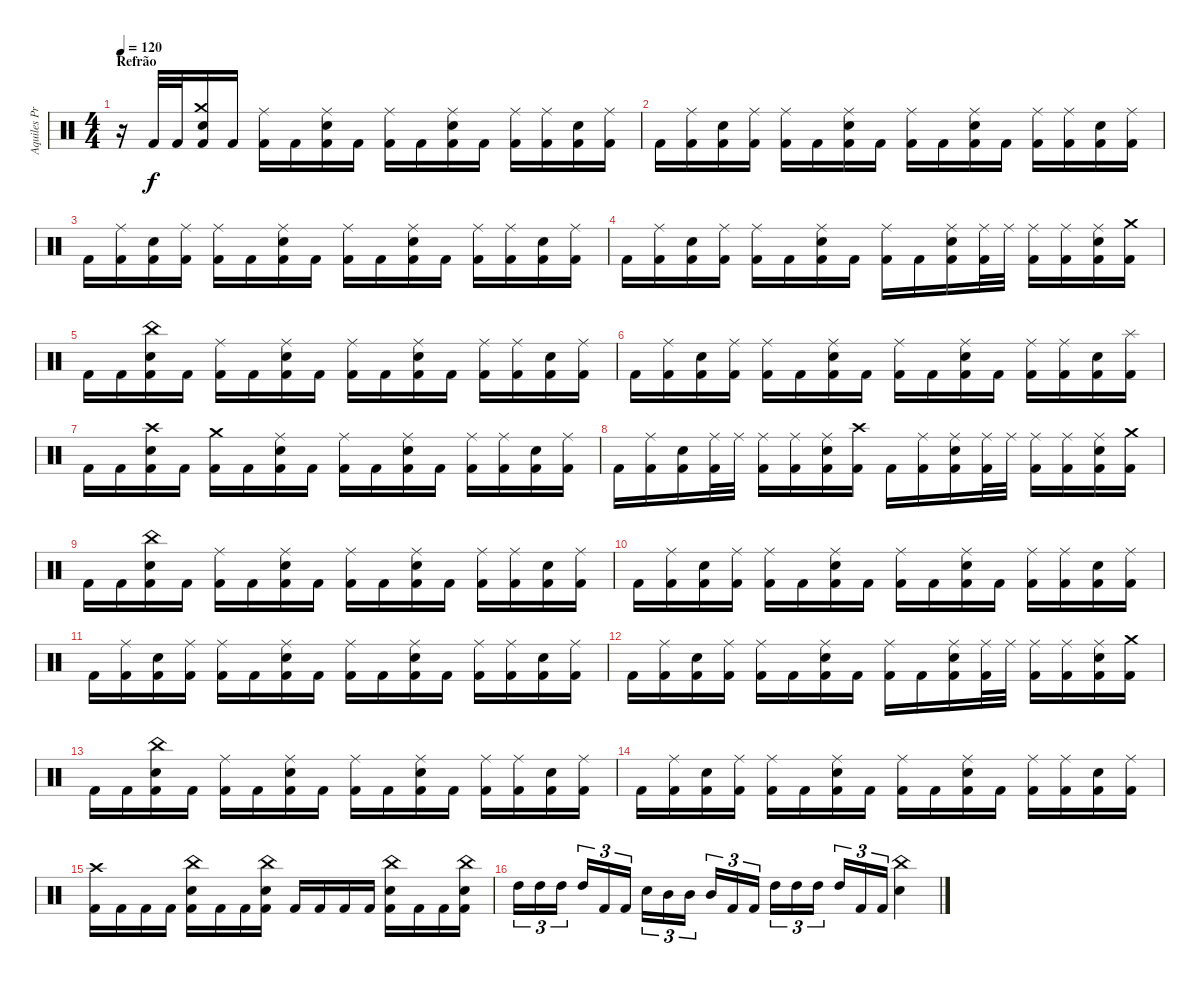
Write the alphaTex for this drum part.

\track ("Aquiles Priester" "Aquiles Pr") {instrument percussion}
\staff {score}
\articulation defaults
\ts (4 4)
\section ("" "Refrão")
\tempo 120
\clef neutral
\ks c
r.16{dy f} "Kick (hit) 2".32 "Kick (hit) 2".32 ("Crash medium (hit)" "Electric Snare (hit)" "Kick (hit) 2").16 "Kick (hit) 2".16 ("Ride (middle)" "Kick (hit) 2").16 "Kick (hit) 2".16 ("Ride (middle)" "Electric Snare (hit)" "Kick (hit) 2").16 "Kick (hit) 2".16 ("Ride (middle)" "Kick (hit) 2").16 "Kick (hit) 2".16 ("Ride (middle)" "Electric Snare (hit)" "Kick (hit) 2").16 "Kick (hit) 2".16 ("Ride (middle)" "Kick (hit) 2").16 ("Ride (middle)" "Kick (hit) 2").16 ("Electric Snare (hit)" "Kick (hit) 2").16 ("Ride (middle)" "Kick (hit) 2").16 |
"Kick (hit) 2".16 ("Ride (middle)" "Kick (hit) 2").16 ("Electric Snare (hit)" "Kick (hit) 2").16 ("Ride (middle)" "Kick (hit) 2").16 ("Ride (middle)" "Kick (hit) 2").16 "Kick (hit) 2".16 ("Ride (middle)" "Electric Snare (hit)" "Kick (hit) 2").16 "Kick (hit) 2".16 ("Ride (middle)" "Kick (hit) 2").16 "Kick (hit) 2".16 ("Ride (middle)" "Electric Snare (hit)" "Kick (hit) 2").16 "Kick (hit) 2".16 ("Ride (middle)" "Kick (hit) 2").16 ("Ride (middle)" "Kick (hit) 2").16 ("Electric Snare (hit)" "Kick (hit) 2").16 ("Ride (middle)" "Kick (hit) 2").16 |
"Kick (hit) 2".16 ("Ride (middle)" "Kick (hit) 2").16 ("Electric Snare (hit)" "Kick (hit) 2").16 ("Ride (middle)" "Kick (hit) 2").16 ("Ride (middle)" "Kick (hit) 2").16 "Kick (hit) 2".16 ("Ride (middle)" "Electric Snare (hit)" "Kick (hit) 2").16 "Kick (hit) 2".16 ("Ride (middle)" "Kick (hit) 2").16 "Kick (hit) 2".16 ("Ride (middle)" "Electric Snare (hit)" "Kick (hit) 2").16 "Kick (hit) 2".16 ("Ride (middle)" "Kick (hit) 2").16 ("Ride (middle)" "Kick (hit) 2").16 ("Electric Snare (hit)" "Kick (hit) 2").16 ("Ride (middle)" "Kick (hit) 2").16 |
"Kick (hit) 2".16 ("Ride (middle)" "Kick (hit) 2").16 ("Electric Snare (hit)" "Kick (hit) 2").16 ("Ride (middle)" "Kick (hit) 2").16 ("Ride (middle)" "Kick (hit) 2").16 "Kick (hit) 2".16 ("Ride (middle)" "Electric Snare (hit)" "Kick (hit) 2").16 "Kick (hit) 2".16 ("Ride (middle)" "Kick (hit) 2").16 "Kick (hit) 2".16 ("Ride (middle)" "Electric Snare (hit)" "Kick (hit) 2").16 ("Ride (middle)" "Kick (hit) 2").32 "Ride (middle)".32 ("Ride (middle)" "Kick (hit) 2").16 ("Ride (middle)" "Kick (hit) 2").16 ("Ride (middle)" "Electric Snare (hit)" "Kick (hit) 2").16 ("Crash medium (hit)" "Kick (hit) 2").16 |
"Kick (hit) 2".16 "Kick (hit) 2".16 ("China (hit)" "Electric Snare (hit)" "Kick (hit) 2").16 "Kick (hit) 2".16 ("Ride (middle)" "Kick (hit) 2").16 "Kick (hit) 2".16 ("Ride (middle)" "Electric Snare (hit)" "Kick (hit) 2").16 "Kick (hit) 2".16 ("Ride (middle)" "Kick (hit) 2").16 "Kick (hit) 2".16 ("Ride (middle)" "Electric Snare (hit)" "Kick (hit) 2").16 "Kick (hit) 2".16 ("Ride (middle)" "Kick (hit) 2").16 ("Ride (middle)" "Kick (hit) 2").16 ("Electric Snare (hit)" "Kick (hit) 2").16 ("Ride (middle)" "Kick (hit) 2").16 |
"Kick (hit) 2".16 ("Ride (middle)" "Kick (hit) 2").16 ("Electric Snare (hit)" "Kick (hit) 2").16 ("Ride (middle)" "Kick (hit) 2").16 ("Ride (middle)" "Kick (hit) 2").16 "Kick (hit) 2".16 ("Ride (middle)" "Electric Snare (hit)" "Kick (hit) 2").16 "Kick (hit) 2".16 ("Ride (middle)" "Kick (hit) 2").16 "Kick (hit) 2".16 ("Ride (middle)" "Electric Snare (hit)" "Kick (hit) 2").16 "Kick (hit) 2".16 ("Ride (middle)" "Kick (hit) 2").16 ("Ride (middle)" "Kick (hit) 2").16 ("Electric Snare (hit)" "Kick (hit) 2").16 ("Splash (hit)" "Kick (hit) 2").16 |
"Kick (hit) 2".16 "Kick (hit) 2".16 ("Crash high (hit)" "Electric Snare (hit)" "Kick (hit) 2").16 "Kick (hit) 2".16 ("Crash medium (hit)" "Kick (hit) 2").16 "Kick (hit) 2".16 ("Ride (middle)" "Electric Snare (hit)" "Kick (hit) 2").16 "Kick (hit) 2".16 ("Ride (middle)" "Kick (hit) 2").16 "Kick (hit) 2".16 ("Ride (middle)" "Electric Snare (hit)" "Kick (hit) 2").16 "Kick (hit) 2".16 ("Ride (middle)" "Kick (hit) 2").16 ("Ride (middle)" "Kick (hit) 2").16 ("Electric Snare (hit)" "Kick (hit) 2").16 ("Ride (middle)" "Kick (hit) 2").16 |
"Kick (hit) 2".16 ("Ride (middle)" "Kick (hit) 2").16 ("Electric Snare (hit)" "Kick (hit) 2").16 ("Ride (middle)" "Kick (hit) 2").32 "Ride (middle)".32 ("Ride (middle)" "Kick (hit) 2").16 ("Ride (middle)" "Kick (hit) 2").16 ("Ride (middle)" "Electric Snare (hit)" "Kick (hit) 2").16 ("Crash high (hit)" "Kick (hit) 2").16 "Kick (hit) 2".16 ("Ride (middle)" "Kick (hit) 2").16 ("Ride (middle)" "Electric Snare (hit)" "Kick (hit) 2").16 ("Ride (middle)" "Kick (hit) 2").32 "Ride (middle)".32 ("Ride (middle)" "Kick (hit) 2").16 ("Ride (middle)" "Kick (hit) 2").16 ("Ride (middle)" "Electric Snare (hit)" "Kick (hit) 2").16 ("Crash medium (hit)" "Kick (hit) 2").16 |
"Kick (hit) 2".16 "Kick (hit) 2".16 ("China (hit)" "Electric Snare (hit)" "Kick (hit) 2").16 "Kick (hit) 2".16 ("Ride (middle)" "Kick (hit) 2").16 "Kick (hit) 2".16 ("Ride (middle)" "Electric Snare (hit)" "Kick (hit) 2").16 "Kick (hit) 2".16 ("Ride (middle)" "Kick (hit) 2").16 "Kick (hit) 2".16 ("Ride (middle)" "Electric Snare (hit)" "Kick (hit) 2").16 "Kick (hit) 2".16 ("Ride (middle)" "Kick (hit) 2").16 ("Ride (middle)" "Kick (hit) 2").16 ("Electric Snare (hit)" "Kick (hit) 2").16 ("Ride (middle)" "Kick (hit) 2").16 |
"Kick (hit) 2".16 ("Ride (middle)" "Kick (hit) 2").16 ("Electric Snare (hit)" "Kick (hit) 2").16 ("Ride (middle)" "Kick (hit) 2").16 ("Ride (middle)" "Kick (hit) 2").16 "Kick (hit) 2".16 ("Ride (middle)" "Electric Snare (hit)" "Kick (hit) 2").16 "Kick (hit) 2".16 ("Ride (middle)" "Kick (hit) 2").16 "Kick (hit) 2".16 ("Ride (middle)" "Electric Snare (hit)" "Kick (hit) 2").16 "Kick (hit) 2".16 ("Ride (middle)" "Kick (hit) 2").16 ("Ride (middle)" "Kick (hit) 2").16 ("Electric Snare (hit)" "Kick (hit) 2").16 ("Ride (middle)" "Kick (hit) 2").16 |
"Kick (hit) 2".16 ("Ride (middle)" "Kick (hit) 2").16 ("Electric Snare (hit)" "Kick (hit) 2").16 ("Ride (middle)" "Kick (hit) 2").16 ("Ride (middle)" "Kick (hit) 2").16 "Kick (hit) 2".16 ("Ride (middle)" "Electric Snare (hit)" "Kick (hit) 2").16 "Kick (hit) 2".16 ("Ride (middle)" "Kick (hit) 2").16 "Kick (hit) 2".16 ("Ride (middle)" "Electric Snare (hit)" "Kick (hit) 2").16 "Kick (hit) 2".16 ("Ride (middle)" "Kick (hit) 2").16 ("Ride (middle)" "Kick (hit) 2").16 ("Electric Snare (hit)" "Kick (hit) 2").16 ("Ride (middle)" "Kick (hit) 2").16 |
"Kick (hit) 2".16 ("Ride (middle)" "Kick (hit) 2").16 ("Electric Snare (hit)" "Kick (hit) 2").16 ("Ride (middle)" "Kick (hit) 2").16 ("Ride (middle)" "Kick (hit) 2").16 "Kick (hit) 2".16 ("Ride (middle)" "Electric Snare (hit)" "Kick (hit) 2").16 "Kick (hit) 2".16 ("Ride (middle)" "Kick (hit) 2").16 "Kick (hit) 2".16 ("Ride (middle)" "Electric Snare (hit)" "Kick (hit) 2").16 ("Ride (middle)" "Kick (hit) 2").32 "Ride (middle)".32 ("Ride (middle)" "Kick (hit) 2").16 ("Ride (middle)" "Kick (hit) 2").16 ("Ride (middle)" "Electric Snare (hit)" "Kick (hit) 2").16 ("Crash medium (hit)" "Kick (hit) 2").16 |
"Kick (hit) 2".16 "Kick (hit) 2".16 ("China (hit)" "Electric Snare (hit)" "Kick (hit) 2").16 "Kick (hit) 2".16 ("Ride (middle)" "Kick (hit) 2").16 "Kick (hit) 2".16 ("Ride (middle)" "Electric Snare (hit)" "Kick (hit) 2").16 "Kick (hit) 2".16 ("Ride (middle)" "Kick (hit) 2").16 "Kick (hit) 2".16 ("Ride (middle)" "Electric Snare (hit)" "Kick (hit) 2").16 "Kick (hit) 2".16 ("Ride (middle)" "Kick (hit) 2").16 ("Ride (middle)" "Kick (hit) 2").16 ("Electric Snare (hit)" "Kick (hit) 2").16 ("Ride (middle)" "Kick (hit) 2").16 |
"Kick (hit) 2".16 ("Ride (middle)" "Kick (hit) 2").16 ("Electric Snare (hit)" "Kick (hit) 2").16 ("Ride (middle)" "Kick (hit) 2").16 ("Ride (middle)" "Kick (hit) 2").16 "Kick (hit) 2".16 ("Ride (middle)" "Electric Snare (hit)" "Kick (hit) 2").16 "Kick (hit) 2".16 ("Ride (middle)" "Kick (hit) 2").16 "Kick (hit) 2".16 ("Ride (middle)" "Electric Snare (hit)" "Kick (hit) 2").16 "Kick (hit) 2".16 ("Ride (middle)" "Kick (hit) 2").16 ("Ride (middle)" "Kick (hit) 2").16 ("Electric Snare (hit)" "Kick (hit) 2").16 ("Ride (middle)" "Kick (hit) 2").16 |
("Crash high (hit)" "Kick (hit) 2").16 "Kick (hit) 2".16 "Kick (hit) 2".16 "Kick (hit) 2".16 ("China (hit)" "Electric Snare (hit)" "Kick (hit) 2").16 "Kick (hit) 2".16 "Kick (hit) 2".16 ("China (hit)" "Electric Snare (hit)" "Kick (hit) 2").16 "Kick (hit) 2".16 "Kick (hit) 2".16 "Kick (hit) 2".16 "Kick (hit) 2".16 ("China (hit)" "Electric Snare (hit)" "Kick (hit) 2").16 "Kick (hit) 2".16 "Kick (hit) 2".16 ("China (hit)" "Electric Snare (hit)" "Kick (hit) 2").16 |
"High Tom (hit)".16{tu (3 2)} "High Tom (hit)".16{tu (3 2)} "High Tom (hit)".16{tu (3 2)} "High Tom (hit)".16{tu (3 2)} "Kick (hit) 2".16{tu (3 2)} "Kick (hit) 2".16{tu (3 2)} "Electric Snare (hit)".16{tu (3 2)} "Mid Tom (hit)".16{tu (3 2)} "Mid Tom (hit)".16{tu (3 2)} "Mid Tom (hit)".16{tu (3 2)} "Kick (hit) 2".16{tu (3 2)} "Kick (hit) 2".16{tu (3 2)} "High Tom (hit)".16{tu (3 2)} "High Tom (hit)".16{tu (3 2)} "High Tom (hit)".16{tu (3 2)} "High Tom (hit)".16{tu (3 2)} "Kick (hit) 2".16{tu (3 2)} "Kick (hit) 2".16{tu (3 2)} ("China (hit)" "Electric Snare (hit)").4
